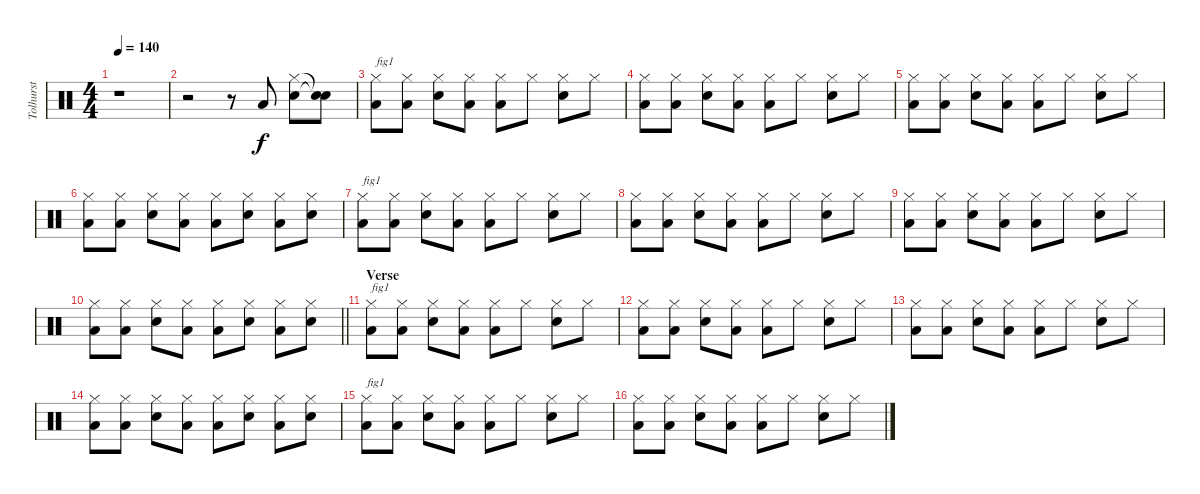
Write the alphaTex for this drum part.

\track ("Tolhurst" "Tolhurst") {instrument percussion}
\staff {score}
\articulation defaults
\ts (4 4)
\tempo 140
\clef neutral
\ks c
r.1{dy f} |
r.2 r.8 "Low Floor Tom (hit)".8 ("Snare (hit) 2" "Hi-Hat (closed)").8 ("Snare (hit)"{t} "Snare (hit)"{t}).8 |
("Low Floor Tom (hit)" "Hi-Hat (closed)").8{txt "fig1"} ("Low Floor Tom (hit)" "Hi-Hat (closed)").8 ("Snare (hit) 2" "Hi-Hat (closed)").8 ("Low Floor Tom (hit)" "Hi-Hat (closed)").8 ("Low Floor Tom (hit)" "Hi-Hat (closed)").8 "Hi-Hat (closed)".8 ("Snare (hit) 2" "Hi-Hat (closed)").8 "Hi-Hat (closed)".8 |
("Low Floor Tom (hit)" "Hi-Hat (closed)").8 ("Low Floor Tom (hit)" "Hi-Hat (closed)").8 ("Snare (hit) 2" "Hi-Hat (closed)").8 ("Low Floor Tom (hit)" "Hi-Hat (closed)").8 ("Low Floor Tom (hit)" "Hi-Hat (closed)").8 "Hi-Hat (closed)".8 ("Snare (hit) 2" "Hi-Hat (closed)").8 "Hi-Hat (closed)".8 |
("Low Floor Tom (hit)" "Hi-Hat (closed)").8 ("Low Floor Tom (hit)" "Hi-Hat (closed)").8 ("Snare (hit) 2" "Hi-Hat (closed)").8 ("Low Floor Tom (hit)" "Hi-Hat (closed)").8 ("Low Floor Tom (hit)" "Hi-Hat (closed)").8 "Hi-Hat (closed)".8 ("Snare (hit) 2" "Hi-Hat (closed)").8 "Hi-Hat (closed)".8 |
("Low Floor Tom (hit)" "Hi-Hat (closed)").8 ("Low Floor Tom (hit)" "Hi-Hat (closed)").8 ("Snare (hit) 2" "Hi-Hat (closed)").8 ("Low Floor Tom (hit)" "Hi-Hat (closed)").8 ("Low Floor Tom (hit)" "Hi-Hat (closed)").8 ("Snare (hit) 2" "Hi-Hat (closed)").8 ("Low Floor Tom (hit)" "Hi-Hat (closed)").8 ("Snare (hit) 2" "Hi-Hat (closed)").8 |
("Low Floor Tom (hit)" "Hi-Hat (closed)").8{txt "fig1"} ("Low Floor Tom (hit)" "Hi-Hat (closed)").8 ("Snare (hit) 2" "Hi-Hat (closed)").8 ("Low Floor Tom (hit)" "Hi-Hat (closed)").8 ("Low Floor Tom (hit)" "Hi-Hat (closed)").8 "Hi-Hat (closed)".8 ("Snare (hit) 2" "Hi-Hat (closed)").8 "Hi-Hat (closed)".8 |
("Low Floor Tom (hit)" "Hi-Hat (closed)").8 ("Low Floor Tom (hit)" "Hi-Hat (closed)").8 ("Snare (hit) 2" "Hi-Hat (closed)").8 ("Low Floor Tom (hit)" "Hi-Hat (closed)").8 ("Low Floor Tom (hit)" "Hi-Hat (closed)").8 "Hi-Hat (closed)".8 ("Snare (hit) 2" "Hi-Hat (closed)").8 "Hi-Hat (closed)".8 |
("Low Floor Tom (hit)" "Hi-Hat (closed)").8 ("Low Floor Tom (hit)" "Hi-Hat (closed)").8 ("Snare (hit) 2" "Hi-Hat (closed)").8 ("Low Floor Tom (hit)" "Hi-Hat (closed)").8 ("Low Floor Tom (hit)" "Hi-Hat (closed)").8 "Hi-Hat (closed)".8 ("Snare (hit) 2" "Hi-Hat (closed)").8 "Hi-Hat (closed)".8 |
\barLineRight lightlight
("Low Floor Tom (hit)" "Hi-Hat (closed)").8 ("Low Floor Tom (hit)" "Hi-Hat (closed)").8 ("Snare (hit) 2" "Hi-Hat (closed)").8 ("Low Floor Tom (hit)" "Hi-Hat (closed)").8 ("Low Floor Tom (hit)" "Hi-Hat (closed)").8 ("Snare (hit) 2" "Hi-Hat (closed)").8 ("Low Floor Tom (hit)" "Hi-Hat (closed)").8 ("Snare (hit) 2" "Hi-Hat (closed)").8 |
\section ("" "Verse")
("Low Floor Tom (hit)" "Hi-Hat (closed)").8{txt "fig1"} ("Low Floor Tom (hit)" "Hi-Hat (closed)").8 ("Snare (hit) 2" "Hi-Hat (closed)").8 ("Low Floor Tom (hit)" "Hi-Hat (closed)").8 ("Low Floor Tom (hit)" "Hi-Hat (closed)").8 "Hi-Hat (closed)".8 ("Snare (hit) 2" "Hi-Hat (closed)").8 "Hi-Hat (closed)".8 |
("Low Floor Tom (hit)" "Hi-Hat (closed)").8 ("Low Floor Tom (hit)" "Hi-Hat (closed)").8 ("Snare (hit) 2" "Hi-Hat (closed)").8 ("Low Floor Tom (hit)" "Hi-Hat (closed)").8 ("Low Floor Tom (hit)" "Hi-Hat (closed)").8 "Hi-Hat (closed)".8 ("Snare (hit) 2" "Hi-Hat (closed)").8 "Hi-Hat (closed)".8 |
("Low Floor Tom (hit)" "Hi-Hat (closed)").8 ("Low Floor Tom (hit)" "Hi-Hat (closed)").8 ("Snare (hit) 2" "Hi-Hat (closed)").8 ("Low Floor Tom (hit)" "Hi-Hat (closed)").8 ("Low Floor Tom (hit)" "Hi-Hat (closed)").8 "Hi-Hat (closed)".8 ("Snare (hit) 2" "Hi-Hat (closed)").8 "Hi-Hat (closed)".8 |
("Low Floor Tom (hit)" "Hi-Hat (closed)").8 ("Low Floor Tom (hit)" "Hi-Hat (closed)").8 ("Snare (hit) 2" "Hi-Hat (closed)").8 ("Low Floor Tom (hit)" "Hi-Hat (closed)").8 ("Low Floor Tom (hit)" "Hi-Hat (closed)").8 ("Snare (hit) 2" "Hi-Hat (closed)").8 ("Low Floor Tom (hit)" "Hi-Hat (closed)").8 ("Snare (hit) 2" "Hi-Hat (closed)").8 |
("Low Floor Tom (hit)" "Hi-Hat (closed)").8{txt "fig1"} ("Low Floor Tom (hit)" "Hi-Hat (closed)").8 ("Snare (hit) 2" "Hi-Hat (closed)").8 ("Low Floor Tom (hit)" "Hi-Hat (closed)").8 ("Low Floor Tom (hit)" "Hi-Hat (closed)").8 "Hi-Hat (closed)".8 ("Snare (hit) 2" "Hi-Hat (closed)").8 "Hi-Hat (closed)".8 |
("Low Floor Tom (hit)" "Hi-Hat (closed)").8 ("Low Floor Tom (hit)" "Hi-Hat (closed)").8 ("Snare (hit) 2" "Hi-Hat (closed)").8 ("Low Floor Tom (hit)" "Hi-Hat (closed)").8 ("Low Floor Tom (hit)" "Hi-Hat (closed)").8 "Hi-Hat (closed)".8 ("Snare (hit) 2" "Hi-Hat (closed)").8 "Hi-Hat (closed)".8
